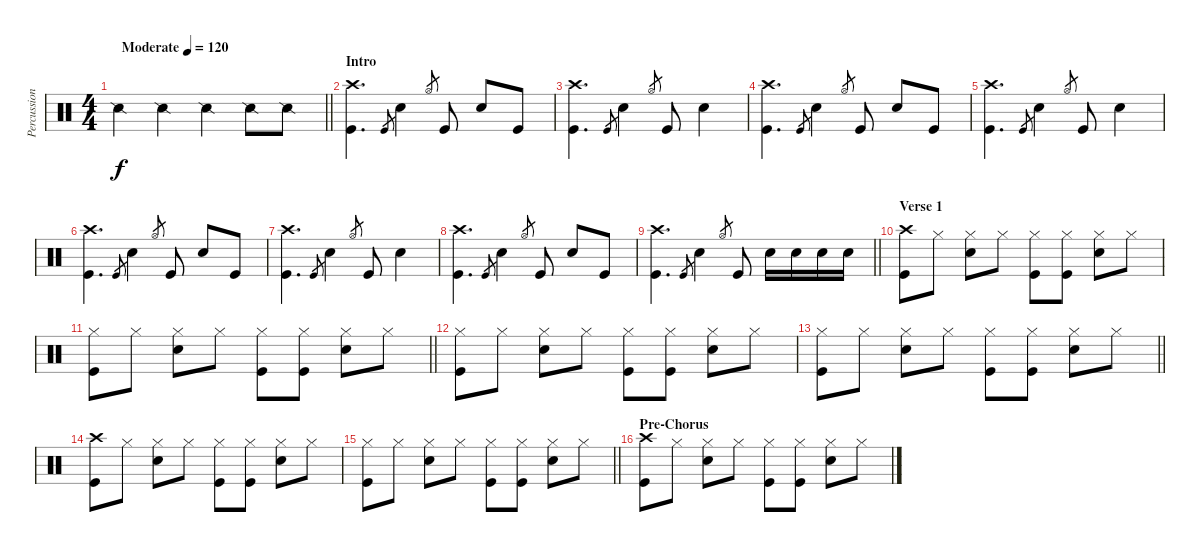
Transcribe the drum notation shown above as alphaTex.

\track ("Percussion" "Percussion") {instrument percussion}
\staff {score}
\articulation defaults
\ts (4 4)
\tempo (120 "Moderate")
\clef neutral
\barLineRight lightlight
\ks c "Snare (side stick) 2".4{dy f} "Snare (side stick) 2".4 "Snare (side stick) 2".4 "Snare (side stick) 2".8 "Snare (side stick) 2".8
|
\section ("" "Intro")
("Crash high (hit)" "Kick (hit)").4{d} "Kick (hit)".8{gr} "Snare (hit) 2".4 "Hi-Hat (open)".8{gr} "Kick (hit)".8 "Snare (hit) 2".8 "Kick (hit)".8 |
("Crash high (hit)" "Kick (hit)").4{d} "Kick (hit)".8{gr} "Snare (hit) 2".4 "Hi-Hat (open)".8{gr} "Kick (hit)".8 "Snare (hit) 2".4 |
("Crash high (hit)" "Kick (hit)").4{d} "Kick (hit)".8{gr} "Snare (hit) 2".4 "Hi-Hat (open)".8{gr} "Kick (hit)".8 "Snare (hit) 2".8 "Kick (hit)".8 |
("Crash high (hit)" "Kick (hit)").4{d} "Kick (hit)".8{gr} "Snare (hit) 2".4 "Hi-Hat (open)".8{gr} "Kick (hit)".8 "Snare (hit) 2".4 |
("Crash high (hit)" "Kick (hit)").4{d} "Kick (hit)".8{gr} "Snare (hit) 2".4 "Hi-Hat (open)".8{gr} "Kick (hit)".8 "Snare (hit) 2".8 "Kick (hit)".8 |
("Crash high (hit)" "Kick (hit)").4{d} "Kick (hit)".8{gr} "Snare (hit) 2".4 "Hi-Hat (open)".8{gr} "Kick (hit)".8 "Snare (hit) 2".4 |
("Crash high (hit)" "Kick (hit)").4{d} "Kick (hit)".8{gr} "Snare (hit) 2".4 "Hi-Hat (open)".8{gr} "Kick (hit)".8 "Snare (hit) 2".8 "Kick (hit)".8 |
\barLineRight lightlight
("Crash high (hit)" "Kick (hit)").4{d} "Kick (hit)".8{gr} "Snare (hit) 2".4 "Hi-Hat (open)".8{gr} "Kick (hit)".8 "Snare (hit) 2".16 "Snare (hit) 2".16 "Snare (hit) 2".16 "Snare (hit) 2".16 |
\section ("" "Verse 1")
("Crash high (hit)" "Kick (hit)").8 "Hi-Hat (closed)".8 ("Hi-Hat (closed)" "Snare (hit) 2").8 "Hi-Hat (closed)".8 ("Hi-Hat (closed)" "Kick (hit)").8 ("Hi-Hat (closed)" "Kick (hit)").8 ("Hi-Hat (closed)" "Snare (hit) 2").8 "Hi-Hat (closed)".8 |
\barLineRight lightlight
("Hi-Hat (closed)" "Kick (hit)").8 "Hi-Hat (closed)".8 ("Hi-Hat (closed)" "Snare (hit) 2").8 "Hi-Hat (closed)".8 ("Hi-Hat (closed)" "Kick (hit)").8 ("Hi-Hat (closed)" "Kick (hit)").8 ("Hi-Hat (closed)" "Snare (hit) 2").8 "Hi-Hat (closed)".8 |
("Hi-Hat (closed)" "Kick (hit)").8 "Hi-Hat (closed)".8 ("Hi-Hat (closed)" "Snare (hit) 2").8 "Hi-Hat (closed)".8 ("Hi-Hat (closed)" "Kick (hit)").8 ("Hi-Hat (closed)" "Kick (hit)").8 ("Hi-Hat (closed)" "Snare (hit) 2").8 "Hi-Hat (closed)".8 |
\barLineRight lightlight
("Hi-Hat (closed)" "Kick (hit)").8 "Hi-Hat (closed)".8 ("Hi-Hat (closed)" "Snare (hit) 2").8 "Hi-Hat (closed)".8 ("Hi-Hat (closed)" "Kick (hit)").8 ("Hi-Hat (closed)" "Kick (hit)").8 ("Hi-Hat (closed)" "Snare (hit) 2").8 "Hi-Hat (closed)".8 |
("Crash high (hit)" "Kick (hit)").8 "Hi-Hat (closed)".8 ("Hi-Hat (closed)" "Snare (hit) 2").8 "Hi-Hat (closed)".8 ("Hi-Hat (closed)" "Kick (hit)").8 ("Hi-Hat (closed)" "Kick (hit)").8 ("Hi-Hat (closed)" "Snare (hit) 2").8 "Hi-Hat (closed)".8 |
\barLineRight lightlight
("Hi-Hat (closed)" "Kick (hit)").8 "Hi-Hat (closed)".8 ("Hi-Hat (closed)" "Snare (hit) 2").8 "Hi-Hat (closed)".8 ("Hi-Hat (closed)" "Kick (hit)").8 ("Hi-Hat (closed)" "Kick (hit)").8 ("Hi-Hat (closed)" "Snare (hit) 2").8 "Hi-Hat (closed)".8 |
\section ("" "Pre-Chorus")
("Crash high (hit)" "Kick (hit)").8 "Hi-Hat (closed)".8 ("Hi-Hat (closed)" "Snare (hit) 2").8 "Hi-Hat (closed)".8 ("Hi-Hat (closed)" "Kick (hit)").8 ("Hi-Hat (closed)" "Kick (hit)").8 ("Hi-Hat (closed)" "Snare (hit) 2").8 "Hi-Hat (closed)".8
